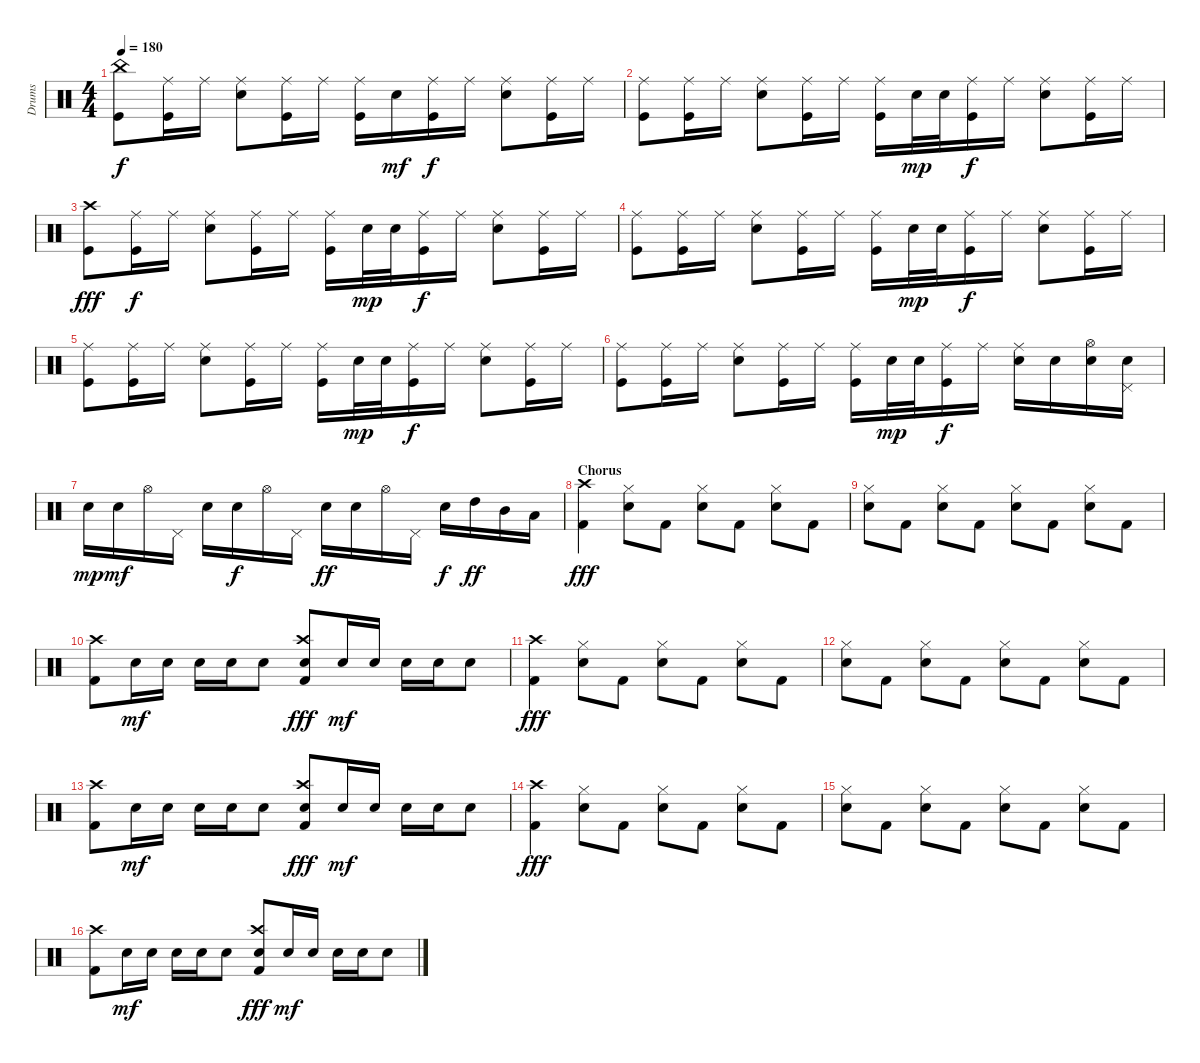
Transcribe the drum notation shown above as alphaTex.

\track ("Drums" "Drums") {instrument percussion}
\staff {score}
\articulation defaults
\ts (4 4)
\tempo 180
\clef neutral
\ks c
("China (hit)" "Kick (hit)").8{dy f} ("Ride (middle)" "Kick (hit)").16 "Ride (middle)".16 ("Ride (middle)" "Electric Snare (hit)").8 ("Ride (middle)" "Kick (hit)").16 "Ride (middle)".16 ("Ride (middle)" "Kick (hit)").16 "Electric Snare (hit)".16{dy mf} ("Ride (middle)" "Kick (hit)").16{dy f} "Ride (middle)".16 ("Ride (middle)" "Electric Snare (hit)").8 ("Ride (middle)" "Kick (hit)").16 "Ride (middle)".16 |
("Ride (middle)" "Kick (hit)").8 ("Ride (middle)" "Kick (hit)").16 "Ride (middle)".16 ("Ride (middle)" "Electric Snare (hit)").8 ("Ride (middle)" "Kick (hit)").16 "Ride (middle)".16 ("Ride (middle)" "Kick (hit)").16 "Electric Snare (hit)".32{dy mp} "Electric Snare (hit)".32 ("Ride (middle)" "Kick (hit)").16{dy f} "Ride (middle)".16 ("Ride (middle)" "Electric Snare (hit)").8 ("Ride (middle)" "Kick (hit)").16 "Ride (middle)".16 |
("Crash high (hit)" "Kick (hit)").8{dy fff} ("Ride (middle)" "Kick (hit)").16{dy f} "Ride (middle)".16 ("Ride (middle)" "Electric Snare (hit)").8 ("Ride (middle)" "Kick (hit)").16 "Ride (middle)".16 ("Ride (middle)" "Kick (hit)").16 "Electric Snare (hit)".32{dy mp} "Electric Snare (hit)".32 ("Ride (middle)" "Kick (hit)").16{dy f} "Ride (middle)".16 ("Ride (middle)" "Electric Snare (hit)").8 ("Ride (middle)" "Kick (hit)").16 "Ride (middle)".16 |
("Ride (middle)" "Kick (hit)").8 ("Ride (middle)" "Kick (hit)").16 "Ride (middle)".16 ("Ride (middle)" "Electric Snare (hit)").8 ("Ride (middle)" "Kick (hit)").16 "Ride (middle)".16 ("Ride (middle)" "Kick (hit)").16 "Electric Snare (hit)".32{dy mp} "Electric Snare (hit)".32 ("Ride (middle)" "Kick (hit)").16{dy f} "Ride (middle)".16 ("Ride (middle)" "Electric Snare (hit)").8 ("Ride (middle)" "Kick (hit)").16 "Ride (middle)".16 |
("Ride (middle)" "Kick (hit)").8 ("Ride (middle)" "Kick (hit)").16 "Ride (middle)".16 ("Ride (middle)" "Electric Snare (hit)").8 ("Ride (middle)" "Kick (hit)").16 "Ride (middle)".16 ("Ride (middle)" "Kick (hit)").16 "Electric Snare (hit)".32{dy mp} "Electric Snare (hit)".32 ("Ride (middle)" "Kick (hit)").16{dy f} "Ride (middle)".16 ("Ride (middle)" "Electric Snare (hit)").8 ("Ride (middle)" "Kick (hit)").16 "Ride (middle)".16 |
("Ride (middle)" "Kick (hit)").8 ("Ride (middle)" "Kick (hit)").16 "Ride (middle)".16 ("Ride (middle)" "Electric Snare (hit)").8 ("Ride (middle)" "Kick (hit)").16 "Ride (middle)".16 ("Ride (middle)" "Kick (hit)").16 "Electric Snare (hit)".32{dy mp} "Electric Snare (hit)".32 ("Ride (middle)" "Kick (hit)").16{dy f} "Ride (middle)".16 ("Ride (middle)" "Electric Snare (hit)").16 "Electric Snare (hit)".16 ("Hi-Hat (open)" "Electric Snare (hit)").16 ("Pedal Hi-Hat (hit)" "Electric Snare (hit)").16 |
"Electric Snare (hit)".16{dy mp} "Electric Snare (hit)".16{dy mf} "Hi-Hat (open)".16 "Pedal Hi-Hat (hit)".16 "Electric Snare (hit)".16 "Electric Snare (hit)".16{dy f} "Hi-Hat (open)".16 "Pedal Hi-Hat (hit)".16 "Electric Snare (hit)".16{dy ff} "Electric Snare (hit)".16 "Hi-Hat (open)".16 "Pedal Hi-Hat (hit)".16 "Electric Snare (hit)".16{dy f} "High Tom (hit)".16{dy ff} "Mid Tom (hit)".16 "Low Tom (hit)".16 |
\section ("" "Chorus")
("Crash high (hit)" "Kick (hit) 2").4{dy fff} ("Hi-Hat (closed)" "Electric Snare (hit)").8 "Kick (hit) 2".8 ("Hi-Hat (closed)" "Electric Snare (hit)").8 "Kick (hit) 2".8 ("Hi-Hat (closed)" "Electric Snare (hit)").8 "Kick (hit) 2".8 |
("Hi-Hat (closed)" "Electric Snare (hit)").8 "Kick (hit) 2".8 ("Hi-Hat (closed)" "Electric Snare (hit)").8 "Kick (hit) 2".8 ("Hi-Hat (closed)" "Electric Snare (hit)").8 "Kick (hit) 2".8 ("Hi-Hat (closed)" "Electric Snare (hit)").8 "Kick (hit) 2".8 |
("Crash high (hit)" "Kick (hit) 2").8 "Electric Snare (hit)".16{dy mf} "Electric Snare (hit)".16 "Electric Snare (hit)".16 "Electric Snare (hit)".16 "Electric Snare (hit)".8 ("Crash high (hit)" "Electric Snare (hit)" "Kick (hit) 2").8{dy fff} "Electric Snare (hit)".16{dy mf} "Electric Snare (hit)".16 "Electric Snare (hit)".16 "Electric Snare (hit)".16 "Electric Snare (hit)".8 |
("Crash high (hit)" "Kick (hit) 2").4{dy fff} ("Hi-Hat (closed)" "Electric Snare (hit)").8 "Kick (hit) 2".8 ("Hi-Hat (closed)" "Electric Snare (hit)").8 "Kick (hit) 2".8 ("Hi-Hat (closed)" "Electric Snare (hit)").8 "Kick (hit) 2".8 |
("Hi-Hat (closed)" "Electric Snare (hit)").8 "Kick (hit) 2".8 ("Hi-Hat (closed)" "Electric Snare (hit)").8 "Kick (hit) 2".8 ("Hi-Hat (closed)" "Electric Snare (hit)").8 "Kick (hit) 2".8 ("Hi-Hat (closed)" "Electric Snare (hit)").8 "Kick (hit) 2".8 |
("Crash high (hit)" "Kick (hit) 2").8 "Electric Snare (hit)".16{dy mf} "Electric Snare (hit)".16 "Electric Snare (hit)".16 "Electric Snare (hit)".16 "Electric Snare (hit)".8 ("Crash high (hit)" "Electric Snare (hit)" "Kick (hit) 2").8{dy fff} "Electric Snare (hit)".16{dy mf} "Electric Snare (hit)".16 "Electric Snare (hit)".16 "Electric Snare (hit)".16 "Electric Snare (hit)".8 |
("Crash high (hit)" "Kick (hit) 2").4{dy fff} ("Hi-Hat (closed)" "Electric Snare (hit)").8 "Kick (hit) 2".8 ("Hi-Hat (closed)" "Electric Snare (hit)").8 "Kick (hit) 2".8 ("Hi-Hat (closed)" "Electric Snare (hit)").8 "Kick (hit) 2".8 |
("Hi-Hat (closed)" "Electric Snare (hit)").8 "Kick (hit) 2".8 ("Hi-Hat (closed)" "Electric Snare (hit)").8 "Kick (hit) 2".8 ("Hi-Hat (closed)" "Electric Snare (hit)").8 "Kick (hit) 2".8 ("Hi-Hat (closed)" "Electric Snare (hit)").8 "Kick (hit) 2".8 |
("Crash high (hit)" "Kick (hit) 2").8 "Electric Snare (hit)".16{dy mf} "Electric Snare (hit)".16 "Electric Snare (hit)".16 "Electric Snare (hit)".16 "Electric Snare (hit)".8 ("Crash high (hit)" "Electric Snare (hit)" "Kick (hit) 2").8{dy fff} "Electric Snare (hit)".16{dy mf} "Electric Snare (hit)".16 "Electric Snare (hit)".16 "Electric Snare (hit)".16 "Electric Snare (hit)".8
